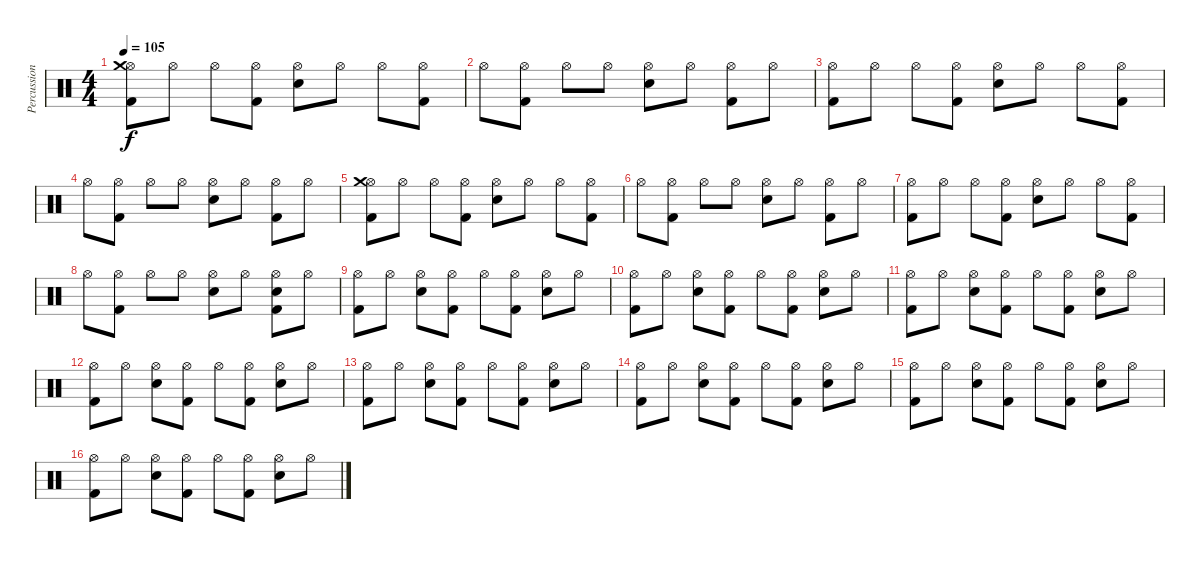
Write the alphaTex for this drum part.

\track ("Percussion" "Percussion") {instrument percussion}
\staff {score}
\articulation defaults
\ts (4 4)
\tempo 105
\clef neutral
\ks c
("Hi-Hat (open)" "Kick (hit) 2" "Crash medium (hit)").8{dy f} "Hi-Hat (open)".8 "Hi-Hat (open)".8 ("Hi-Hat (open)" "Kick (hit) 2").8 ("Hi-Hat (open)" "Snare (hit) 2").8 "Hi-Hat (open)".8 "Hi-Hat (open)".8 ("Hi-Hat (open)" "Kick (hit) 2").8 |
"Hi-Hat (open)".8 ("Hi-Hat (open)" "Kick (hit) 2").8 "Hi-Hat (open)".8 "Hi-Hat (open)".8 ("Hi-Hat (open)" "Snare (hit) 2").8 "Hi-Hat (open)".8 ("Hi-Hat (open)" "Kick (hit) 2").8 "Hi-Hat (open)".8 |
("Hi-Hat (open)" "Kick (hit) 2").8 "Hi-Hat (open)".8 "Hi-Hat (open)".8 ("Hi-Hat (open)" "Kick (hit) 2").8 ("Hi-Hat (open)" "Snare (hit) 2").8 "Hi-Hat (open)".8 "Hi-Hat (open)".8 ("Hi-Hat (open)" "Kick (hit) 2").8 |
"Hi-Hat (open)".8 ("Hi-Hat (open)" "Kick (hit) 2").8 "Hi-Hat (open)".8 "Hi-Hat (open)".8 ("Hi-Hat (open)" "Snare (hit) 2").8 "Hi-Hat (open)".8 ("Hi-Hat (open)" "Kick (hit) 2").8 "Hi-Hat (open)".8 |
("Hi-Hat (open)" "Kick (hit) 2" "Crash medium (hit)").8 "Hi-Hat (open)".8 "Hi-Hat (open)".8 ("Hi-Hat (open)" "Kick (hit) 2").8 ("Hi-Hat (open)" "Snare (hit) 2").8 "Hi-Hat (open)".8 "Hi-Hat (open)".8 ("Hi-Hat (open)" "Kick (hit) 2").8 |
"Hi-Hat (open)".8 ("Hi-Hat (open)" "Kick (hit) 2").8 "Hi-Hat (open)".8 "Hi-Hat (open)".8 ("Hi-Hat (open)" "Snare (hit) 2").8 "Hi-Hat (open)".8 ("Hi-Hat (open)" "Kick (hit) 2").8 "Hi-Hat (open)".8 |
("Hi-Hat (open)" "Kick (hit) 2").8 "Hi-Hat (open)".8 "Hi-Hat (open)".8 ("Hi-Hat (open)" "Kick (hit) 2").8 ("Hi-Hat (open)" "Snare (hit) 2").8 "Hi-Hat (open)".8 "Hi-Hat (open)".8 ("Hi-Hat (open)" "Kick (hit) 2").8 |
"Hi-Hat (open)".8 ("Hi-Hat (open)" "Kick (hit) 2").8 "Hi-Hat (open)".8 "Hi-Hat (open)".8 ("Hi-Hat (open)" "Snare (hit) 2").8 "Hi-Hat (open)".8 ("Hi-Hat (open)" "Kick (hit) 2" "Snare (hit) 2").8 "Hi-Hat (open)".8 |
("Hi-Hat (open)" "Kick (hit) 2").8 "Hi-Hat (open)".8 ("Hi-Hat (open)" "Snare (hit) 2").8 ("Hi-Hat (open)" "Kick (hit) 2").8 "Hi-Hat (open)".8 ("Hi-Hat (open)" "Kick (hit) 2").8 ("Hi-Hat (open)" "Snare (hit) 2").8 "Hi-Hat (open)".8 |
("Hi-Hat (open)" "Kick (hit) 2").8 "Hi-Hat (open)".8 ("Hi-Hat (open)" "Snare (hit) 2").8 ("Hi-Hat (open)" "Kick (hit) 2").8 "Hi-Hat (open)".8 ("Hi-Hat (open)" "Kick (hit) 2").8 ("Hi-Hat (open)" "Snare (hit) 2").8 "Hi-Hat (open)".8 |
("Hi-Hat (open)" "Kick (hit) 2").8 "Hi-Hat (open)".8 ("Hi-Hat (open)" "Snare (hit) 2").8 ("Hi-Hat (open)" "Kick (hit) 2").8 "Hi-Hat (open)".8 ("Hi-Hat (open)" "Kick (hit) 2").8 ("Hi-Hat (open)" "Snare (hit) 2").8 "Hi-Hat (open)".8 |
("Hi-Hat (open)" "Kick (hit) 2").8 "Hi-Hat (open)".8 ("Hi-Hat (open)" "Snare (hit) 2").8 ("Hi-Hat (open)" "Kick (hit) 2").8 "Hi-Hat (open)".8 ("Hi-Hat (open)" "Kick (hit) 2").8 ("Hi-Hat (open)" "Snare (hit) 2").8 "Hi-Hat (open)".8 |
("Hi-Hat (open)" "Kick (hit) 2").8 "Hi-Hat (open)".8 ("Hi-Hat (open)" "Snare (hit) 2").8 ("Hi-Hat (open)" "Kick (hit) 2").8 "Hi-Hat (open)".8 ("Hi-Hat (open)" "Kick (hit) 2").8 ("Hi-Hat (open)" "Snare (hit) 2").8 "Hi-Hat (open)".8 |
("Hi-Hat (open)" "Kick (hit) 2").8 "Hi-Hat (open)".8 ("Hi-Hat (open)" "Snare (hit) 2").8 ("Hi-Hat (open)" "Kick (hit) 2").8 "Hi-Hat (open)".8 ("Hi-Hat (open)" "Kick (hit) 2").8 ("Hi-Hat (open)" "Snare (hit) 2").8 "Hi-Hat (open)".8 |
("Hi-Hat (open)" "Kick (hit) 2").8 "Hi-Hat (open)".8 ("Hi-Hat (open)" "Snare (hit) 2").8 ("Hi-Hat (open)" "Kick (hit) 2").8 "Hi-Hat (open)".8 ("Hi-Hat (open)" "Kick (hit) 2").8 ("Hi-Hat (open)" "Snare (hit) 2").8 "Hi-Hat (open)".8 |
("Hi-Hat (open)" "Kick (hit) 2").8 "Hi-Hat (open)".8 ("Hi-Hat (open)" "Snare (hit) 2").8 ("Hi-Hat (open)" "Kick (hit) 2").8 "Hi-Hat (open)".8 ("Hi-Hat (open)" "Kick (hit) 2").8 ("Hi-Hat (open)" "Snare (hit) 2").8 "Hi-Hat (open)".8
